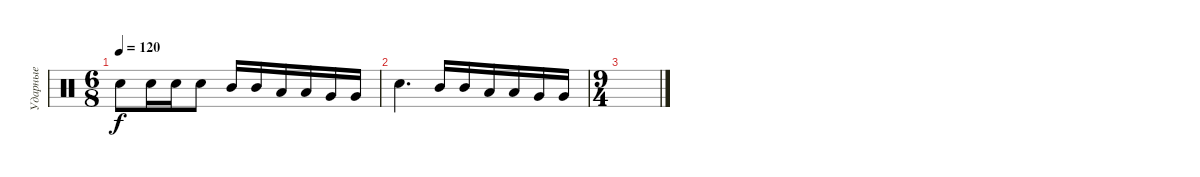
\track ("Ударные" "Ударные") {instrument percussion}
\staff {score}
\articulation defaults
\ts (6 8)
\tempo 120
\clef neutral
\ks c "Electric Snare (hit)".8{dy f} "Electric Snare (hit)".16 "Electric Snare (hit)".16 "Electric Snare (hit)".8 "Mid Tom (hit)".16 "Mid Tom (hit)".16 "Low Tom (hit)".16 "Low Tom (hit)".16 "Very Low Tom (hit)".16 "Very Low Tom (hit)".16
|
"Electric Snare (hit)".4{d} "Mid Tom (hit)".16 "Mid Tom (hit)".16 "Low Tom (hit)".16 "Low Tom (hit)".16 "Very Low Tom (hit)".16 "Very Low Tom (hit)".16 |
\ts (9 4)
